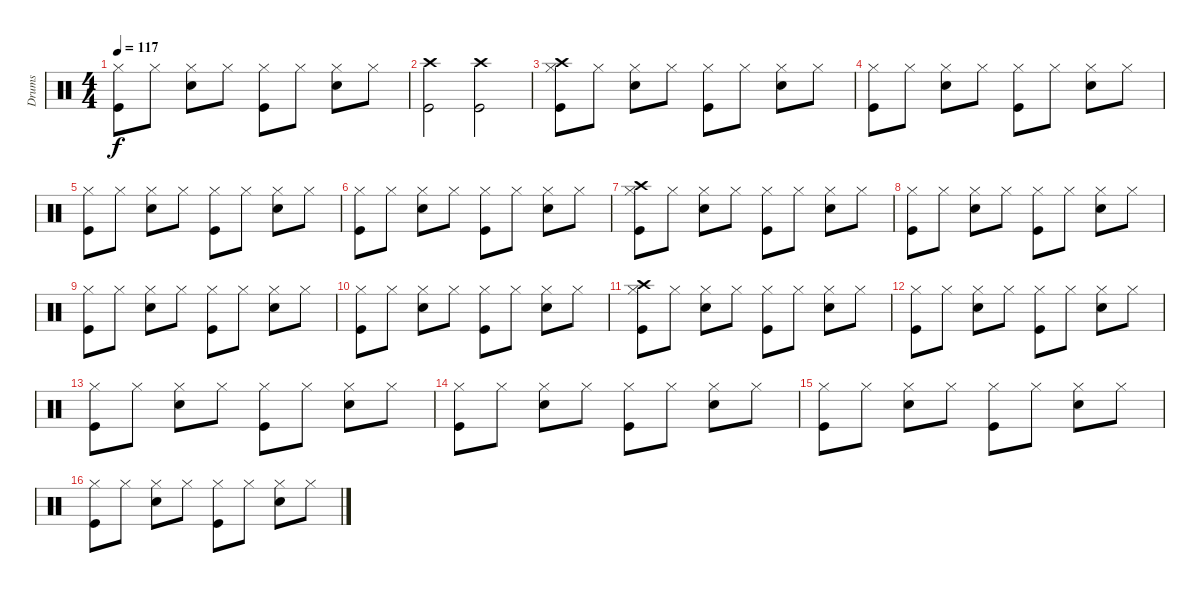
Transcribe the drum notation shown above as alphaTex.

\track ("Drums" "Drums") {instrument percussion}
\staff {score}
\articulation defaults
\ts (4 4)
\tempo 117
\clef neutral
\ks c
("Kick (hit)" "Hi-Hat (closed)").8{dy f} "Hi-Hat (closed)".8 ("Hi-Hat (closed)" "Snare (hit) 2").8 "Hi-Hat (closed)".8 ("Kick (hit)" "Hi-Hat (closed)").8 "Hi-Hat (closed)".8 ("Hi-Hat (closed)" "Snare (hit) 2").8 "Hi-Hat (closed)".8 |
("Kick (hit)" "Crash high (hit)").2 ("Kick (hit)" "Crash high (hit)").2 |
("Kick (hit)" "Hi-Hat (closed)" "Crash high (hit)").8 "Hi-Hat (closed)".8 ("Hi-Hat (closed)" "Snare (hit) 2").8 "Hi-Hat (closed)".8 ("Kick (hit)" "Hi-Hat (closed)").8 "Hi-Hat (closed)".8 ("Hi-Hat (closed)" "Snare (hit) 2").8 "Hi-Hat (closed)".8 |
("Kick (hit)" "Hi-Hat (closed)").8 "Hi-Hat (closed)".8 ("Hi-Hat (closed)" "Snare (hit) 2").8 "Hi-Hat (closed)".8 ("Kick (hit)" "Hi-Hat (closed)").8 "Hi-Hat (closed)".8 ("Hi-Hat (closed)" "Snare (hit) 2").8 "Hi-Hat (closed)".8 |
("Kick (hit)" "Hi-Hat (closed)").8 "Hi-Hat (closed)".8 ("Hi-Hat (closed)" "Snare (hit) 2").8 "Hi-Hat (closed)".8 ("Kick (hit)" "Hi-Hat (closed)").8 "Hi-Hat (closed)".8 ("Hi-Hat (closed)" "Snare (hit) 2").8 "Hi-Hat (closed)".8 |
("Kick (hit)" "Hi-Hat (closed)").8 "Hi-Hat (closed)".8 ("Hi-Hat (closed)" "Snare (hit) 2").8 "Hi-Hat (closed)".8 ("Kick (hit)" "Hi-Hat (closed)").8 "Hi-Hat (closed)".8 ("Hi-Hat (closed)" "Snare (hit) 2").8 "Hi-Hat (closed)".8 |
("Kick (hit)" "Hi-Hat (closed)" "Crash high (hit)").8 "Hi-Hat (closed)".8 ("Hi-Hat (closed)" "Snare (hit) 2").8 "Hi-Hat (closed)".8 ("Kick (hit)" "Hi-Hat (closed)").8 "Hi-Hat (closed)".8 ("Hi-Hat (closed)" "Snare (hit) 2").8 "Hi-Hat (closed)".8 |
("Kick (hit)" "Hi-Hat (closed)").8 "Hi-Hat (closed)".8 ("Hi-Hat (closed)" "Snare (hit) 2").8 "Hi-Hat (closed)".8 ("Kick (hit)" "Hi-Hat (closed)").8 "Hi-Hat (closed)".8 ("Hi-Hat (closed)" "Snare (hit) 2").8 "Hi-Hat (closed)".8 |
("Kick (hit)" "Hi-Hat (closed)").8 "Hi-Hat (closed)".8 ("Hi-Hat (closed)" "Snare (hit) 2").8 "Hi-Hat (closed)".8 ("Kick (hit)" "Hi-Hat (closed)").8 "Hi-Hat (closed)".8 ("Hi-Hat (closed)" "Snare (hit) 2").8 "Hi-Hat (closed)".8 |
("Kick (hit)" "Hi-Hat (closed)").8 "Hi-Hat (closed)".8 ("Hi-Hat (closed)" "Snare (hit) 2").8 "Hi-Hat (closed)".8 ("Kick (hit)" "Hi-Hat (closed)").8 "Hi-Hat (closed)".8 ("Hi-Hat (closed)" "Snare (hit) 2").8 "Hi-Hat (closed)".8 |
("Kick (hit)" "Hi-Hat (closed)" "Crash high (hit)").8 "Hi-Hat (closed)".8 ("Hi-Hat (closed)" "Snare (hit) 2").8 "Hi-Hat (closed)".8 ("Kick (hit)" "Hi-Hat (closed)").8 "Hi-Hat (closed)".8 ("Hi-Hat (closed)" "Snare (hit) 2").8 "Hi-Hat (closed)".8 |
("Kick (hit)" "Hi-Hat (closed)").8 "Hi-Hat (closed)".8 ("Hi-Hat (closed)" "Snare (hit) 2").8 "Hi-Hat (closed)".8 ("Kick (hit)" "Hi-Hat (closed)").8 "Hi-Hat (closed)".8 ("Hi-Hat (closed)" "Snare (hit) 2").8 "Hi-Hat (closed)".8 |
("Kick (hit)" "Hi-Hat (closed)").8 "Hi-Hat (closed)".8 ("Hi-Hat (closed)" "Snare (hit) 2").8 "Hi-Hat (closed)".8 ("Kick (hit)" "Hi-Hat (closed)").8 "Hi-Hat (closed)".8 ("Hi-Hat (closed)" "Snare (hit) 2").8 "Hi-Hat (closed)".8 |
("Kick (hit)" "Hi-Hat (closed)").8 "Hi-Hat (closed)".8 ("Hi-Hat (closed)" "Snare (hit) 2").8 "Hi-Hat (closed)".8 ("Kick (hit)" "Hi-Hat (closed)").8 "Hi-Hat (closed)".8 ("Hi-Hat (closed)" "Snare (hit) 2").8 "Hi-Hat (closed)".8 |
("Kick (hit)" "Hi-Hat (closed)").8 "Hi-Hat (closed)".8 ("Hi-Hat (closed)" "Snare (hit) 2").8 "Hi-Hat (closed)".8 ("Kick (hit)" "Hi-Hat (closed)").8 "Hi-Hat (closed)".8 ("Hi-Hat (closed)" "Snare (hit) 2").8 "Hi-Hat (closed)".8 |
("Kick (hit)" "Hi-Hat (closed)").8 "Hi-Hat (closed)".8 ("Hi-Hat (closed)" "Snare (hit) 2").8 "Hi-Hat (closed)".8 ("Kick (hit)" "Hi-Hat (closed)").8 "Hi-Hat (closed)".8 ("Hi-Hat (closed)" "Snare (hit) 2").8 "Hi-Hat (closed)".8
